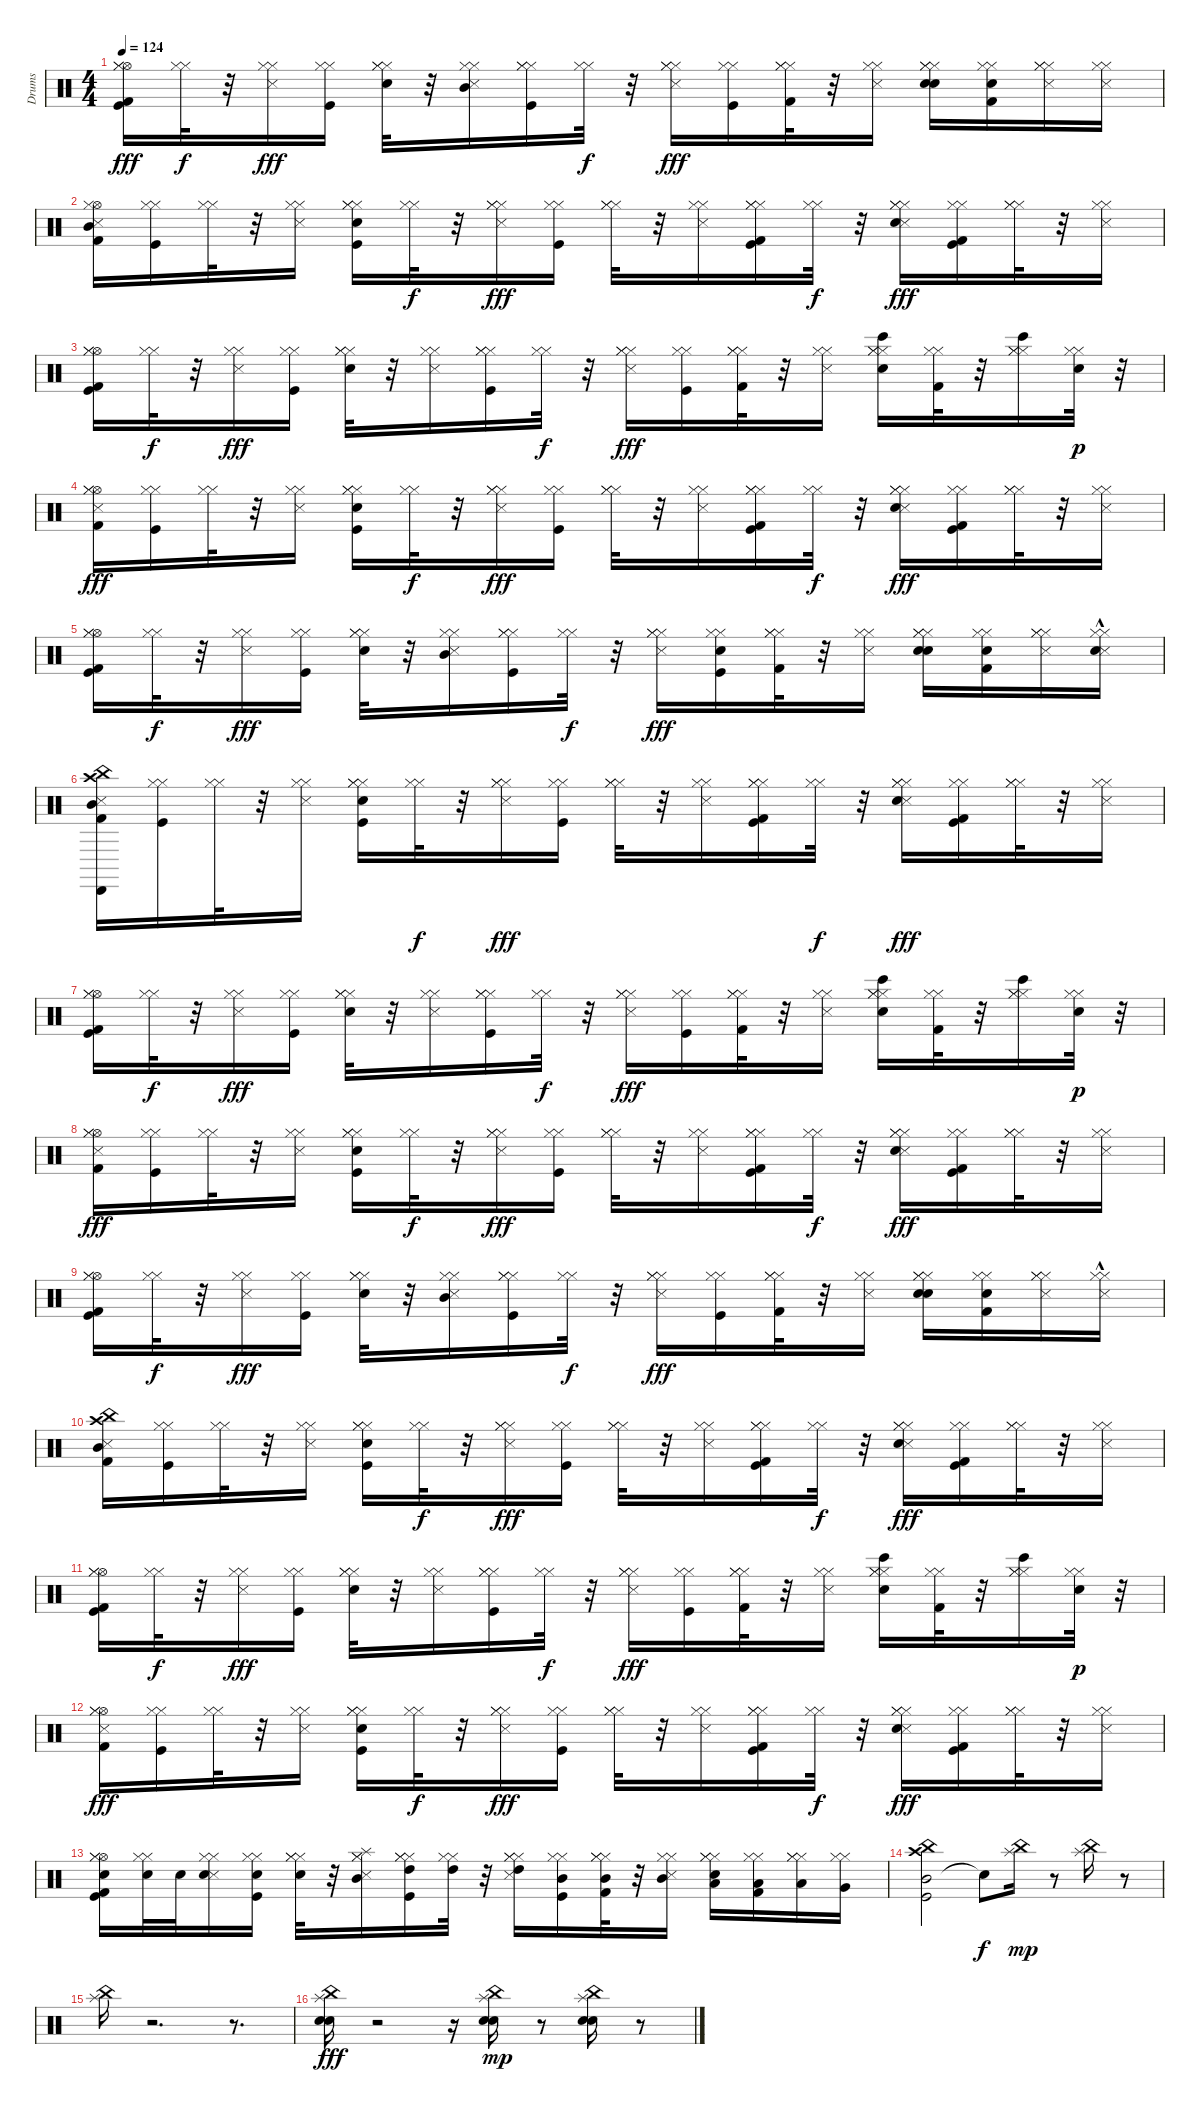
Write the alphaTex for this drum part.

\track ("Drums" "Drums") {instrument percussion}
\staff {score}
\articulation defaults
\ts (4 4)
\tempo 124
\clef neutral
\ks c
("Kick (hit)" "Hi-Hat (open)" "Kick (hit) 2" "Hi-Hat (closed)" "Hi-Hat (closed)").16{dy fff} ("Hi-Hat (closed)" "Hi-Hat (closed)").32{dy f} r.32 ("Metronome (hit)" "Hi-Hat (closed)" "Hi-Hat (closed)").16{dy fff} ("Kick (hit)" "Hi-Hat (closed)" "Hi-Hat (closed)").16 ("Hi-Hat (closed)" "Electric Snare (hit)" "Hi-Hat (closed)" "Hi-Hat (closed)").32 r.32 ("Mid Tom (hit)" "Metronome (hit)" "Hi-Hat (closed)" "Hi-Hat (closed)").16 ("Kick (hit)" "Hi-Hat (closed)" "Hi-Hat (closed)" "Hi-Hat (closed)").16 ("Hi-Hat (closed)" "Hi-Hat (closed)").32{dy f} r.32 ("Metronome (hit)" "Hi-Hat (closed)" "Hi-Hat (closed)" "Hi-Hat (closed)").16{dy fff} ("Kick (hit)" "Hi-Hat (closed)" "Hi-Hat (closed)").16 ("Kick (hit) 2" "Hi-Hat (closed)" "Hi-Hat (closed)" "Hi-Hat (closed)").32 r.32 ("Metronome (hit)" "Hi-Hat (closed)" "Hi-Hat (closed)").16 ("Hand Clap (hit)" "Hi-Hat (closed)" "Electric Snare (hit)" "Hi-Hat (closed)" "Hi-Hat (closed)").16 ("Hand Clap (hit)" "Kick (hit) 2" "Hi-Hat (closed)" "Hi-Hat (closed)").16 ("Snare (side stick) 3" "Hi-Hat (closed)" "Hi-Hat (closed)" "Hi-Hat (closed)").16 ("Snare (side stick) 3" "Hi-Hat (closed)" "Hi-Hat (closed)").16 |
("Mid Tom (hit)" "Metronome (hit)" "Hi-Hat (open)" "Kick (hit) 2" "Hi-Hat (closed)").16 ("Kick (hit)" "Hi-Hat (closed)" "Hi-Hat (closed)").16 ("Hi-Hat (closed)" "Hi-Hat (closed)").32 r.32 ("Metronome (hit)" "Hi-Hat (closed)" "Hi-Hat (closed)").16 ("Kick (hit)" "Hi-Hat (closed)" "Electric Snare (hit)" "Hi-Hat (closed)" "Hi-Hat (closed)").16 ("Hi-Hat (closed)" "Hi-Hat (closed)").32{dy f} r.32 ("Metronome (hit)" "Hi-Hat (closed)" "Hi-Hat (closed)" "Hi-Hat (closed)").16{dy fff} ("Kick (hit)" "Hi-Hat (closed)" "Hi-Hat (closed)").16 ("Hi-Hat (closed)" "Hi-Hat (closed)" "Hi-Hat (closed)").32 r.32 ("Metronome (hit)" "Hi-Hat (closed)" "Hi-Hat (closed)").16 ("Kick (hit)" "Hi-Hat (closed)" "Kick (hit) 2" "Hi-Hat (closed)" "Hi-Hat (closed)").16 ("Hi-Hat (closed)" "Hi-Hat (closed)").32{dy f} r.32 ("Metronome (hit)" "Hi-Hat (closed)" "Electric Snare (hit)" "Hi-Hat (closed)" "Hi-Hat (closed)").16{dy fff} ("Kick (hit)" "Kick (hit) 2" "Hi-Hat (closed)" "Hi-Hat (closed)").16 ("Hi-Hat (closed)" "Hi-Hat (closed)" "Hi-Hat (closed)").32 r.32 ("Metronome (hit)" "Hi-Hat (closed)" "Hi-Hat (closed)").16 |
("Kick (hit)" "Hi-Hat (open)" "Kick (hit) 2" "Hi-Hat (closed)" "Hi-Hat (closed)").16 ("Hi-Hat (closed)" "Hi-Hat (closed)").32{dy f} r.32 ("Metronome (hit)" "Hi-Hat (closed)" "Hi-Hat (closed)").16{dy fff} ("Kick (hit)" "Hi-Hat (closed)" "Hi-Hat (closed)").16 ("Electric Snare (hit)" "Hi-Hat (closed)" "Hi-Hat (closed)" "Hi-Hat (closed)").32 r.32 ("Metronome (hit)" "Hi-Hat (closed)" "Hi-Hat (closed)").16 ("Kick (hit)" "Hi-Hat (closed)" "Hi-Hat (closed)" "Hi-Hat (closed)").16 ("Hi-Hat (closed)" "Hi-Hat (closed)").32{dy f} r.32 ("Metronome (hit)" "Hi-Hat (closed)" "Hi-Hat (closed)" "Hi-Hat (closed)").16{dy fff} ("Kick (hit)" "Hi-Hat (closed)" "Hi-Hat (closed)").16 ("Hi-Hat (closed)" "Kick (hit) 2" "Hi-Hat (closed)" "Hi-Hat (closed)").32 r.32 ("Metronome (hit)" "Hi-Hat (closed)" "Hi-Hat (closed)").16 ("Bongo High (hit)" "Electric Snare (hit)" "Hi-Hat (closed)" "Hi-Hat (closed)" "Hi-Hat (closed)").16 ("Kick (hit) 2" "Hi-Hat (closed)" "Hi-Hat (closed)").32 r.32 ("Bongo High (hit)" "Hi-Hat (closed)" "Hi-Hat (closed)" "Hi-Hat (closed)").16 ("Hi-Hat (closed)" "Hi-Hat (closed)" "Electric Snare (hit)").32{dy p} r.32 |
("Metronome (hit)" "Kick (hit) 2" "Hi-Hat (open)" "Hi-Hat (closed)" "Hi-Hat (closed)").16{dy fff} ("Kick (hit)" "Hi-Hat (closed)" "Hi-Hat (closed)").16 ("Hi-Hat (closed)" "Hi-Hat (closed)").32 r.32 ("Metronome (hit)" "Hi-Hat (closed)" "Hi-Hat (closed)").16 ("Kick (hit)" "Electric Snare (hit)" "Hi-Hat (closed)" "Hi-Hat (closed)" "Hi-Hat (closed)").16 ("Hi-Hat (closed)" "Hi-Hat (closed)").32{dy f} r.32 ("Metronome (hit)" "Hi-Hat (closed)" "Hi-Hat (closed)" "Hi-Hat (closed)").16{dy fff} ("Kick (hit)" "Hi-Hat (closed)" "Hi-Hat (closed)").16 ("Hi-Hat (closed)" "Hi-Hat (closed)" "Hi-Hat (closed)").32 r.32 ("Metronome (hit)" "Hi-Hat (closed)" "Hi-Hat (closed)").16 ("Kick (hit)" "Kick (hit) 2" "Hi-Hat (closed)" "Hi-Hat (closed)" "Hi-Hat (closed)").16 ("Hi-Hat (closed)" "Hi-Hat (closed)").32{dy f} r.32 ("Metronome (hit)" "Electric Snare (hit)" "Hi-Hat (closed)" "Hi-Hat (closed)" "Hi-Hat (closed)").16{dy fff} ("Kick (hit)" "Kick (hit) 2" "Hi-Hat (closed)" "Hi-Hat (closed)").16 ("Hi-Hat (closed)" "Hi-Hat (closed)" "Hi-Hat (closed)").32 r.32 ("Metronome (hit)" "Hi-Hat (closed)" "Hi-Hat (closed)").16 |
("Kick (hit)" "Hi-Hat (open)" "Kick (hit) 2" "Hi-Hat (closed)" "Hi-Hat (closed)").16 ("Hi-Hat (closed)" "Hi-Hat (closed)").32{dy f} r.32 ("Metronome (hit)" "Hi-Hat (closed)" "Hi-Hat (closed)").16{dy fff} ("Kick (hit)" "Hi-Hat (closed)" "Hi-Hat (closed)").16 ("Hi-Hat (closed)" "Electric Snare (hit)" "Hi-Hat (closed)" "Hi-Hat (closed)").32 r.32 ("Mid Tom (hit)" "Metronome (hit)" "Hi-Hat (closed)" "Hi-Hat (closed)").16 ("Kick (hit)" "Hi-Hat (closed)" "Hi-Hat (closed)" "Hi-Hat (closed)").16 ("Hi-Hat (closed)" "Hi-Hat (closed)").32{dy f} r.32 ("Metronome (hit)" "Hi-Hat (closed)" "Hi-Hat (closed)" "Hi-Hat (closed)").16{dy fff} ("Kick (hit)" "Electric Snare (hit)" "Hi-Hat (closed)" "Hi-Hat (closed)").16 ("Kick (hit) 2" "Hi-Hat (closed)" "Hi-Hat (closed)" "Hi-Hat (closed)").32 r.32 ("Metronome (hit)" "Hi-Hat (closed)" "Hi-Hat (closed)").16 ("Hand Clap (hit)" "Hi-Hat (closed)" "Electric Snare (hit)" "Hi-Hat (closed)" "Hi-Hat (closed)").16 ("Hand Clap (hit)" "Kick (hit) 2" "Hi-Hat (closed)" "Hi-Hat (closed)").16 ("Snare (side stick) 3" "Hi-Hat (closed)" "Hi-Hat (closed)" "Hi-Hat (closed)").16 ("Snare (side stick) 3" "Electric Snare (hit)" "Hi-Hat (closed)"{hac} "Hi-Hat (closed)"{hac}).16 |
("Mid Tom (hit)" "Cabasa (hit)" "Metronome (hit)" "Crash high (hit)" "China (hit)" "Kick (hit) 2").16 ("Kick (hit)" "Hi-Hat (closed)" "Hi-Hat (closed)").16 ("Hi-Hat (closed)" "Hi-Hat (closed)").32 r.32 ("Metronome (hit)" "Hi-Hat (closed)" "Hi-Hat (closed)").16 ("Kick (hit)" "Hi-Hat (closed)" "Electric Snare (hit)" "Hi-Hat (closed)" "Hi-Hat (closed)").16 ("Hi-Hat (closed)" "Hi-Hat (closed)").32{dy f} r.32 ("Metronome (hit)" "Hi-Hat (closed)" "Hi-Hat (closed)" "Hi-Hat (closed)").16{dy fff} ("Kick (hit)" "Hi-Hat (closed)" "Hi-Hat (closed)").16 ("Hi-Hat (closed)" "Hi-Hat (closed)" "Hi-Hat (closed)").32 r.32 ("Metronome (hit)" "Hi-Hat (closed)" "Hi-Hat (closed)").16 ("Kick (hit)" "Hi-Hat (closed)" "Kick (hit) 2" "Hi-Hat (closed)" "Hi-Hat (closed)").16 ("Hi-Hat (closed)" "Hi-Hat (closed)").32{dy f} r.32 ("Metronome (hit)" "Hi-Hat (closed)" "Electric Snare (hit)" "Hi-Hat (closed)" "Hi-Hat (closed)").16{dy fff} ("Kick (hit)" "Kick (hit) 2" "Hi-Hat (closed)" "Hi-Hat (closed)").16 ("Hi-Hat (closed)" "Hi-Hat (closed)" "Hi-Hat (closed)").32 r.32 ("Metronome (hit)" "Hi-Hat (closed)" "Hi-Hat (closed)").16 |
("Kick (hit)" "Hi-Hat (open)" "Kick (hit) 2" "Hi-Hat (closed)" "Hi-Hat (closed)").16 ("Hi-Hat (closed)" "Hi-Hat (closed)").32{dy f} r.32 ("Metronome (hit)" "Hi-Hat (closed)" "Hi-Hat (closed)").16{dy fff} ("Kick (hit)" "Hi-Hat (closed)" "Hi-Hat (closed)").16 ("Electric Snare (hit)" "Hi-Hat (closed)" "Hi-Hat (closed)" "Hi-Hat (closed)").32 r.32 ("Metronome (hit)" "Hi-Hat (closed)" "Hi-Hat (closed)").16 ("Kick (hit)" "Hi-Hat (closed)" "Hi-Hat (closed)" "Hi-Hat (closed)").16 ("Hi-Hat (closed)" "Hi-Hat (closed)").32{dy f} r.32 ("Metronome (hit)" "Hi-Hat (closed)" "Hi-Hat (closed)" "Hi-Hat (closed)").16{dy fff} ("Kick (hit)" "Hi-Hat (closed)" "Hi-Hat (closed)").16 ("Hi-Hat (closed)" "Kick (hit) 2" "Hi-Hat (closed)" "Hi-Hat (closed)").32 r.32 ("Metronome (hit)" "Hi-Hat (closed)" "Hi-Hat (closed)").16 ("Bongo High (hit)" "Electric Snare (hit)" "Hi-Hat (closed)" "Hi-Hat (closed)" "Hi-Hat (closed)").16 ("Kick (hit) 2" "Hi-Hat (closed)" "Hi-Hat (closed)").32 r.32 ("Bongo High (hit)" "Hi-Hat (closed)" "Hi-Hat (closed)" "Hi-Hat (closed)").16 ("Hi-Hat (closed)" "Hi-Hat (closed)" "Electric Snare (hit)").32{dy p} r.32 |
("Metronome (hit)" "Kick (hit) 2" "Hi-Hat (open)" "Hi-Hat (closed)" "Hi-Hat (closed)").16{dy fff} ("Kick (hit)" "Hi-Hat (closed)" "Hi-Hat (closed)").16 ("Hi-Hat (closed)" "Hi-Hat (closed)").32 r.32 ("Metronome (hit)" "Hi-Hat (closed)" "Hi-Hat (closed)").16 ("Kick (hit)" "Electric Snare (hit)" "Hi-Hat (closed)" "Hi-Hat (closed)" "Hi-Hat (closed)").16 ("Hi-Hat (closed)" "Hi-Hat (closed)").32{dy f} r.32 ("Metronome (hit)" "Hi-Hat (closed)" "Hi-Hat (closed)" "Hi-Hat (closed)").16{dy fff} ("Kick (hit)" "Hi-Hat (closed)" "Hi-Hat (closed)").16 ("Hi-Hat (closed)" "Hi-Hat (closed)" "Hi-Hat (closed)").32 r.32 ("Metronome (hit)" "Hi-Hat (closed)" "Hi-Hat (closed)").16 ("Kick (hit)" "Kick (hit) 2" "Hi-Hat (closed)" "Hi-Hat (closed)" "Hi-Hat (closed)").16 ("Hi-Hat (closed)" "Hi-Hat (closed)").32{dy f} r.32 ("Metronome (hit)" "Electric Snare (hit)" "Hi-Hat (closed)" "Hi-Hat (closed)" "Hi-Hat (closed)").16{dy fff} ("Kick (hit)" "Kick (hit) 2" "Hi-Hat (closed)" "Hi-Hat (closed)").16 ("Hi-Hat (closed)" "Hi-Hat (closed)" "Hi-Hat (closed)").32 r.32 ("Metronome (hit)" "Hi-Hat (closed)" "Hi-Hat (closed)").16 |
("Kick (hit)" "Hi-Hat (open)" "Kick (hit) 2" "Hi-Hat (closed)" "Hi-Hat (closed)").16 ("Hi-Hat (closed)" "Hi-Hat (closed)").32{dy f} r.32 ("Metronome (hit)" "Hi-Hat (closed)" "Hi-Hat (closed)").16{dy fff} ("Kick (hit)" "Hi-Hat (closed)" "Hi-Hat (closed)").16 ("Hi-Hat (closed)" "Electric Snare (hit)" "Hi-Hat (closed)" "Hi-Hat (closed)").32 r.32 ("Mid Tom (hit)" "Metronome (hit)" "Hi-Hat (closed)" "Hi-Hat (closed)").16 ("Kick (hit)" "Hi-Hat (closed)" "Hi-Hat (closed)" "Hi-Hat (closed)").16 ("Hi-Hat (closed)" "Hi-Hat (closed)").32{dy f} r.32 ("Metronome (hit)" "Hi-Hat (closed)" "Hi-Hat (closed)" "Hi-Hat (closed)").16{dy fff} ("Kick (hit)" "Hi-Hat (closed)" "Hi-Hat (closed)").16 ("Kick (hit) 2" "Hi-Hat (closed)" "Hi-Hat (closed)" "Hi-Hat (closed)").32 r.32 ("Metronome (hit)" "Hi-Hat (closed)" "Hi-Hat (closed)").16 ("Hand Clap (hit)" "Hi-Hat (closed)" "Electric Snare (hit)" "Hi-Hat (closed)" "Hi-Hat (closed)").16 ("Hand Clap (hit)" "Kick (hit) 2" "Hi-Hat (closed)" "Hi-Hat (closed)").16 ("Snare (side stick) 3" "Hi-Hat (closed)" "Hi-Hat (closed)" "Hi-Hat (closed)").16 ("Snare (side stick) 3" "Hi-Hat (closed)"{hac} "Hi-Hat (closed)"{hac}).16 |
("Mid Tom (hit)" "Metronome (hit)" "Crash high (hit)" "China (hit)" "Kick (hit) 2").16 ("Kick (hit)" "Hi-Hat (closed)" "Hi-Hat (closed)").16 ("Hi-Hat (closed)" "Hi-Hat (closed)").32 r.32 ("Metronome (hit)" "Hi-Hat (closed)" "Hi-Hat (closed)").16 ("Kick (hit)" "Hi-Hat (closed)" "Electric Snare (hit)" "Hi-Hat (closed)" "Hi-Hat (closed)").16 ("Hi-Hat (closed)" "Hi-Hat (closed)").32{dy f} r.32 ("Metronome (hit)" "Hi-Hat (closed)" "Hi-Hat (closed)" "Hi-Hat (closed)").16{dy fff} ("Kick (hit)" "Hi-Hat (closed)" "Hi-Hat (closed)").16 ("Hi-Hat (closed)" "Hi-Hat (closed)" "Hi-Hat (closed)").32 r.32 ("Metronome (hit)" "Hi-Hat (closed)" "Hi-Hat (closed)").16 ("Kick (hit)" "Hi-Hat (closed)" "Kick (hit) 2" "Hi-Hat (closed)" "Hi-Hat (closed)").16 ("Hi-Hat (closed)" "Hi-Hat (closed)").32{dy f} r.32 ("Metronome (hit)" "Hi-Hat (closed)" "Electric Snare (hit)" "Hi-Hat (closed)" "Hi-Hat (closed)").16{dy fff} ("Kick (hit)" "Kick (hit) 2" "Hi-Hat (closed)" "Hi-Hat (closed)").16 ("Hi-Hat (closed)" "Hi-Hat (closed)" "Hi-Hat (closed)").32 r.32 ("Metronome (hit)" "Hi-Hat (closed)" "Hi-Hat (closed)").16 |
("Kick (hit)" "Hi-Hat (open)" "Kick (hit) 2" "Hi-Hat (closed)" "Hi-Hat (closed)").16 ("Hi-Hat (closed)" "Hi-Hat (closed)").32{dy f} r.32 ("Metronome (hit)" "Hi-Hat (closed)" "Hi-Hat (closed)").16{dy fff} ("Kick (hit)" "Hi-Hat (closed)" "Hi-Hat (closed)").16 ("Electric Snare (hit)" "Hi-Hat (closed)" "Hi-Hat (closed)" "Hi-Hat (closed)").32 r.32 ("Metronome (hit)" "Hi-Hat (closed)" "Hi-Hat (closed)").16 ("Kick (hit)" "Hi-Hat (closed)" "Hi-Hat (closed)" "Hi-Hat (closed)").16 ("Hi-Hat (closed)" "Hi-Hat (closed)").32{dy f} r.32 ("Metronome (hit)" "Hi-Hat (closed)" "Hi-Hat (closed)" "Hi-Hat (closed)").16{dy fff} ("Kick (hit)" "Hi-Hat (closed)" "Hi-Hat (closed)").16 ("Hi-Hat (closed)" "Kick (hit) 2" "Hi-Hat (closed)" "Hi-Hat (closed)").32 r.32 ("Metronome (hit)" "Hi-Hat (closed)" "Hi-Hat (closed)").16 ("Bongo High (hit)" "Electric Snare (hit)" "Hi-Hat (closed)" "Hi-Hat (closed)" "Hi-Hat (closed)").16 ("Kick (hit) 2" "Hi-Hat (closed)" "Hi-Hat (closed)").32 r.32 ("Bongo High (hit)" "Hi-Hat (closed)" "Hi-Hat (closed)" "Hi-Hat (closed)").16 ("Hi-Hat (closed)" "Hi-Hat (closed)" "Electric Snare (hit)").32{dy p} r.32 |
("Metronome (hit)" "Kick (hit) 2" "Hi-Hat (open)" "Hi-Hat (closed)" "Hi-Hat (closed)").16{dy fff} ("Kick (hit)" "Hi-Hat (closed)" "Hi-Hat (closed)").16 ("Hi-Hat (closed)" "Hi-Hat (closed)").32 r.32 ("Metronome (hit)" "Hi-Hat (closed)" "Hi-Hat (closed)").16 ("Kick (hit)" "Electric Snare (hit)" "Hi-Hat (closed)" "Hi-Hat (closed)" "Hi-Hat (closed)").16 ("Hi-Hat (closed)" "Hi-Hat (closed)").32{dy f} r.32 ("Metronome (hit)" "Hi-Hat (closed)" "Hi-Hat (closed)" "Hi-Hat (closed)").16{dy fff} ("Kick (hit)" "Hi-Hat (closed)" "Hi-Hat (closed)").16 ("Hi-Hat (closed)" "Hi-Hat (closed)" "Hi-Hat (closed)").32 r.32 ("Metronome (hit)" "Hi-Hat (closed)" "Hi-Hat (closed)").16 ("Kick (hit)" "Kick (hit) 2" "Hi-Hat (closed)" "Hi-Hat (closed)" "Hi-Hat (closed)").16 ("Hi-Hat (closed)" "Hi-Hat (closed)").32{dy f} r.32 ("Metronome (hit)" "Electric Snare (hit)" "Hi-Hat (closed)" "Hi-Hat (closed)" "Hi-Hat (closed)").16{dy fff} ("Kick (hit)" "Kick (hit) 2" "Hi-Hat (closed)" "Hi-Hat (closed)").16 ("Hi-Hat (closed)" "Hi-Hat (closed)" "Hi-Hat (closed)").32 r.32 ("Metronome (hit)" "Hi-Hat (closed)" "Hi-Hat (closed)").16 |
("Kick (hit)" "Electric Snare (hit)" "Hi-Hat (open)" "Kick (hit) 2" "Hi-Hat (closed)" "Hi-Hat (closed)").16 ("Electric Snare (hit)" "Hi-Hat (closed)" "Hi-Hat (closed)").32 "Electric Snare (hit)".32 ("Metronome (hit)" "Electric Snare (hit)" "Hi-Hat (closed)" "Hi-Hat (closed)").16 ("Kick (hit)" "Electric Snare (hit)" "Hi-Hat (closed)" "Hi-Hat (closed)").16 ("Hi-Hat (closed)" "Electric Snare (hit)" "Hi-Hat (closed)" "Hi-Hat (closed)").32 r.32 ("Mid Tom (hit)" "Metronome (hit)" "Splash (hit)" "Hi-Hat (closed)" "Hi-Hat (closed)").16 ("Kick (hit)" "High Tom (hit)" "Hi-Hat (closed)" "Hi-Hat (closed)" "Hi-Hat (closed)").16 ("High Tom (hit)" "Hi-Hat (closed)" "Hi-Hat (closed)").32 r.32 ("Metronome (hit)" "High Tom (hit)" "Hi-Hat (closed)" "Hi-Hat (closed)" "Hi-Hat (closed)").16 ("Kick (hit)" "Mid Tom (hit)" "Hi-Hat (closed)" "Hi-Hat (closed)").16 ("Mid Tom (hit)" "Kick (hit) 2" "Hi-Hat (closed)" "Hi-Hat (closed)" "Hi-Hat (closed)").32 r.32 ("Metronome (hit)" "Mid Tom (hit)" "Hi-Hat (closed)" "Hi-Hat (closed)").16 ("Low Tom (hit)" "Hi-Hat (closed)" "Electric Snare (hit)" "Hi-Hat (closed)" "Hi-Hat (closed)").16 ("Low Tom (hit)" "Kick (hit) 2" "Hi-Hat (closed)" "Hi-Hat (closed)").16 ("Low Tom (hit)" "Hi-Hat (closed)" "Hi-Hat (closed)" "Hi-Hat (closed)").16 ("Very Low Tom (hit)" "Hi-Hat (closed)" "Hi-Hat (closed)").16 |
("Mid Tom (hit)" "Crash high (hit)" "China (hit)" "Kick (hit)").2 "Snare (hit)"{t}.8{dy f} ("China (hit)" "Splash (hit)").16{dy mp} r.8 ("China (hit)" "Splash (hit)").16 r.8 |
("China (hit)" "Splash (hit)").16 r.2{d} r.8{d} |
("Snare (hit)" "Snare (hit)" "China (hit)" "Splash (hit)").16{dy fff} r.2 r.16 ("Snare (hit)" "Snare (hit)" "Splash (hit)" "China (hit)").16{dy mp} r.8 ("Snare (hit)" "Snare (hit)" "Splash (hit)" "China (hit)").16 r.8
